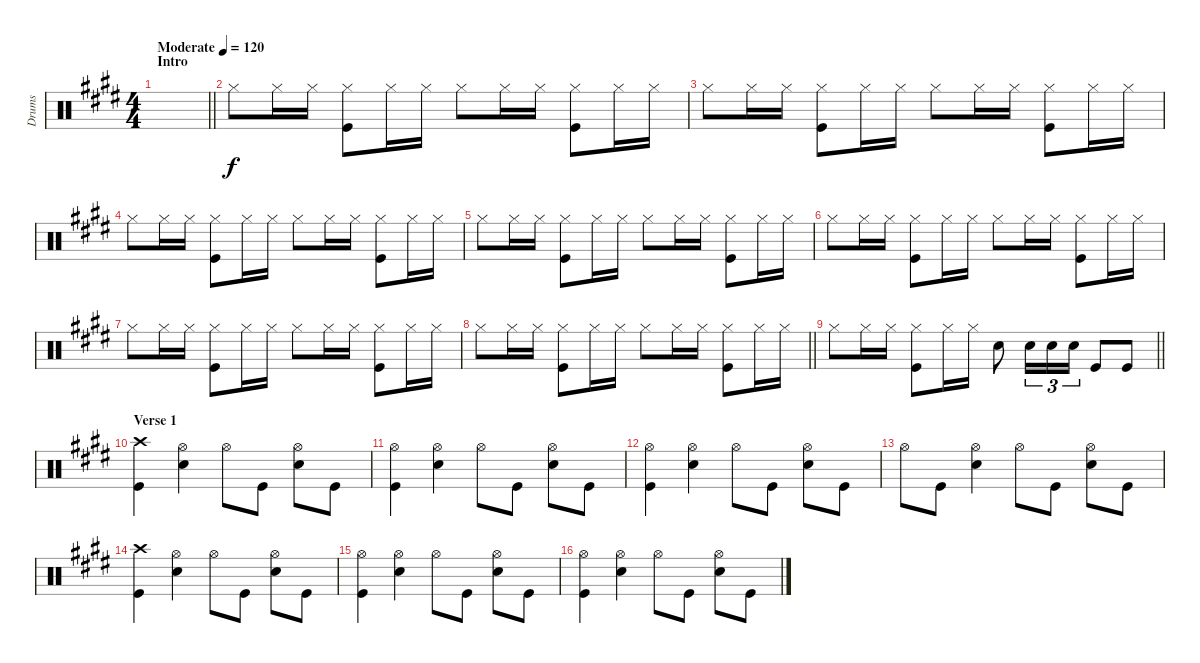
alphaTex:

\track ("Drums" "Drums") {instrument percussion}
\staff {score}
\articulation defaults
\ts (4 4)
\section ("" "Intro")
\tempo (120 "Moderate")
\clef neutral
\barLineRight lightlight
\ks e
|
"Hi-Hat (closed)".8 "Hi-Hat (closed)".16 "Hi-Hat (closed)".16 ("Hi-Hat (closed)" "Kick (hit)").8 "Hi-Hat (closed)".16 "Hi-Hat (closed)".16 "Hi-Hat (closed)".8 "Hi-Hat (closed)".16 "Hi-Hat (closed)".16 ("Hi-Hat (closed)" "Kick (hit)").8 "Hi-Hat (closed)".16 "Hi-Hat (closed)".16 |
"Hi-Hat (closed)".8 "Hi-Hat (closed)".16 "Hi-Hat (closed)".16 ("Hi-Hat (closed)" "Kick (hit)").8 "Hi-Hat (closed)".16 "Hi-Hat (closed)".16 "Hi-Hat (closed)".8 "Hi-Hat (closed)".16 "Hi-Hat (closed)".16 ("Hi-Hat (closed)" "Kick (hit)").8 "Hi-Hat (closed)".16 "Hi-Hat (closed)".16 |
"Hi-Hat (closed)".8 "Hi-Hat (closed)".16 "Hi-Hat (closed)".16 ("Hi-Hat (closed)" "Kick (hit)").8 "Hi-Hat (closed)".16 "Hi-Hat (closed)".16 "Hi-Hat (closed)".8 "Hi-Hat (closed)".16 "Hi-Hat (closed)".16 ("Hi-Hat (closed)" "Kick (hit)").8 "Hi-Hat (closed)".16 "Hi-Hat (closed)".16 |
"Hi-Hat (closed)".8 "Hi-Hat (closed)".16 "Hi-Hat (closed)".16 ("Hi-Hat (closed)" "Kick (hit)").8 "Hi-Hat (closed)".16 "Hi-Hat (closed)".16 "Hi-Hat (closed)".8 "Hi-Hat (closed)".16 "Hi-Hat (closed)".16 ("Hi-Hat (closed)" "Kick (hit)").8 "Hi-Hat (closed)".16 "Hi-Hat (closed)".16 |
"Hi-Hat (closed)".8 "Hi-Hat (closed)".16 "Hi-Hat (closed)".16 ("Hi-Hat (closed)" "Kick (hit)").8 "Hi-Hat (closed)".16 "Hi-Hat (closed)".16 "Hi-Hat (closed)".8 "Hi-Hat (closed)".16 "Hi-Hat (closed)".16 ("Hi-Hat (closed)" "Kick (hit)").8 "Hi-Hat (closed)".16 "Hi-Hat (closed)".16 |
"Hi-Hat (closed)".8 "Hi-Hat (closed)".16 "Hi-Hat (closed)".16 ("Hi-Hat (closed)" "Kick (hit)").8 "Hi-Hat (closed)".16 "Hi-Hat (closed)".16 "Hi-Hat (closed)".8 "Hi-Hat (closed)".16 "Hi-Hat (closed)".16 ("Hi-Hat (closed)" "Kick (hit)").8 "Hi-Hat (closed)".16 "Hi-Hat (closed)".16 |
\barLineRight lightlight "Hi-Hat (closed)".8 "Hi-Hat (closed)".16 "Hi-Hat (closed)".16
("Hi-Hat (closed)" "Kick (hit)").8 "Hi-Hat (closed)".16 "Hi-Hat (closed)".16 "Hi-Hat (closed)".8 "Hi-Hat (closed)".16 "Hi-Hat (closed)".16 ("Hi-Hat (closed)" "Kick (hit)").8 "Hi-Hat (closed)".16 "Hi-Hat (closed)".16 |
\section ("" "")
\barLineRight lightlight "Hi-Hat (closed)".8 "Hi-Hat (closed)".16 "Hi-Hat (closed)".16
("Hi-Hat (closed)" "Kick (hit)").8 "Hi-Hat (closed)".16 "Hi-Hat (closed)".16 "Snare (hit) 2".8 "Snare (hit) 2".16{tu (3 2)} "Snare (hit) 2".16{tu (3 2)} "Snare (hit) 2".16{tu (3 2)} "Kick (hit)".8 "Kick (hit)".8 |
\section ("" "Verse 1")
("Crash high (hit)" "Kick (hit)").4 ("Hi-Hat (open)" "Snare (hit) 2").4 "Hi-Hat (open)".8 "Kick (hit)".8 ("Hi-Hat (open)" "Snare (hit) 2").8 "Kick (hit)".8 |
("Hi-Hat (open)" "Kick (hit)").4 ("Hi-Hat (open)" "Snare (hit) 2").4 "Hi-Hat (open)".8 "Kick (hit)".8 ("Hi-Hat (open)" "Snare (hit) 2").8 "Kick (hit)".8 |
("Hi-Hat (open)" "Kick (hit)").4 ("Hi-Hat (open)" "Snare (hit) 2").4 "Hi-Hat (open)".8 "Kick (hit)".8 ("Hi-Hat (open)" "Snare (hit) 2").8 "Kick (hit)".8 |
"Hi-Hat (open)".8 "Kick (hit)".8 ("Hi-Hat (open)" "Snare (hit) 2").4 "Hi-Hat (open)".8 "Kick (hit)".8 ("Hi-Hat (open)" "Snare (hit) 2").8 "Kick (hit)".8 |
("Crash high (hit)" "Kick (hit)").4 ("Hi-Hat (open)" "Snare (hit) 2").4 "Hi-Hat (open)".8 "Kick (hit)".8 ("Hi-Hat (open)" "Snare (hit) 2").8 "Kick (hit)".8 |
("Hi-Hat (open)" "Kick (hit)").4 ("Hi-Hat (open)" "Snare (hit) 2").4 "Hi-Hat (open)".8 "Kick (hit)".8 ("Hi-Hat (open)" "Snare (hit) 2").8 "Kick (hit)".8 |
("Hi-Hat (open)" "Kick (hit)").4 ("Hi-Hat (open)" "Snare (hit) 2").4 "Hi-Hat (open)".8 "Kick (hit)".8 ("Hi-Hat (open)" "Snare (hit) 2").8 "Kick (hit)".8
